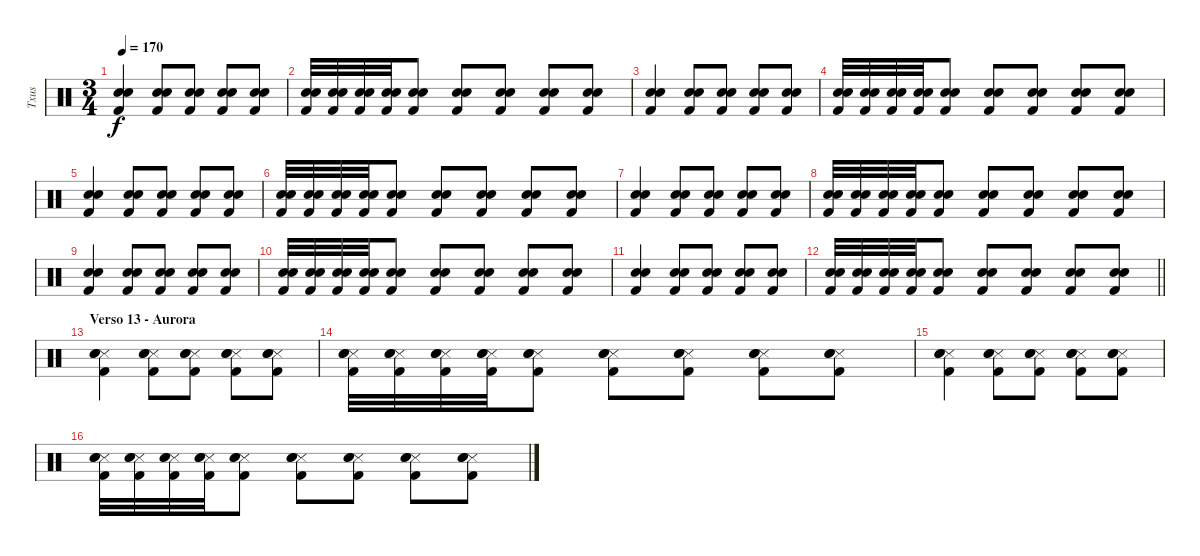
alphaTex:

\track ("Txus" "Txus") {instrument percussion}
\staff {score}
\articulation defaults
\ts (3 4)
\tempo 170
\clef neutral
\ks c
("Snare (hit) 2" "Hand Clap (hit)" "Kick (hit) 2").4{dy f} ("Snare (hit) 2" "Hand Clap (hit)" "Kick (hit) 2").8 ("Snare (hit) 2" "Hand Clap (hit)" "Kick (hit) 2").8 ("Snare (hit) 2" "Hand Clap (hit)" "Kick (hit) 2").8 ("Snare (hit) 2" "Hand Clap (hit)" "Kick (hit) 2").8 |
("Snare (hit) 2" "Hand Clap (hit)" "Kick (hit) 2").32 ("Snare (hit) 2" "Hand Clap (hit)" "Kick (hit) 2").32 ("Snare (hit) 2" "Hand Clap (hit)" "Kick (hit) 2").32 ("Snare (hit) 2" "Hand Clap (hit)" "Kick (hit) 2").32 ("Snare (hit) 2" "Hand Clap (hit)" "Kick (hit) 2").8 ("Snare (hit) 2" "Hand Clap (hit)" "Kick (hit) 2").8 ("Snare (hit) 2" "Hand Clap (hit)" "Kick (hit) 2").8 ("Snare (hit) 2" "Hand Clap (hit)" "Kick (hit) 2").8 ("Snare (hit) 2" "Hand Clap (hit)" "Kick (hit) 2").8 |
("Snare (hit) 2" "Hand Clap (hit)" "Kick (hit) 2").4 ("Snare (hit) 2" "Hand Clap (hit)" "Kick (hit) 2").8 ("Snare (hit) 2" "Hand Clap (hit)" "Kick (hit) 2").8 ("Snare (hit) 2" "Hand Clap (hit)" "Kick (hit) 2").8 ("Snare (hit) 2" "Hand Clap (hit)" "Kick (hit) 2").8 |
("Snare (hit) 2" "Hand Clap (hit)" "Kick (hit) 2").32 ("Snare (hit) 2" "Hand Clap (hit)" "Kick (hit) 2").32 ("Snare (hit) 2" "Hand Clap (hit)" "Kick (hit) 2").32 ("Snare (hit) 2" "Hand Clap (hit)" "Kick (hit) 2").32 ("Snare (hit) 2" "Hand Clap (hit)" "Kick (hit) 2").8 ("Snare (hit) 2" "Hand Clap (hit)" "Kick (hit) 2").8 ("Snare (hit) 2" "Hand Clap (hit)" "Kick (hit) 2").8 ("Snare (hit) 2" "Hand Clap (hit)" "Kick (hit) 2").8 ("Snare (hit) 2" "Hand Clap (hit)" "Kick (hit) 2").8 |
("Snare (hit) 2" "Hand Clap (hit)" "Kick (hit) 2").4 ("Snare (hit) 2" "Hand Clap (hit)" "Kick (hit) 2").8 ("Snare (hit) 2" "Hand Clap (hit)" "Kick (hit) 2").8 ("Snare (hit) 2" "Hand Clap (hit)" "Kick (hit) 2").8 ("Snare (hit) 2" "Hand Clap (hit)" "Kick (hit) 2").8 |
("Snare (hit) 2" "Hand Clap (hit)" "Kick (hit) 2").32 ("Snare (hit) 2" "Hand Clap (hit)" "Kick (hit) 2").32 ("Snare (hit) 2" "Hand Clap (hit)" "Kick (hit) 2").32 ("Snare (hit) 2" "Hand Clap (hit)" "Kick (hit) 2").32 ("Snare (hit) 2" "Hand Clap (hit)" "Kick (hit) 2").8 ("Snare (hit) 2" "Hand Clap (hit)" "Kick (hit) 2").8 ("Snare (hit) 2" "Hand Clap (hit)" "Kick (hit) 2").8 ("Snare (hit) 2" "Hand Clap (hit)" "Kick (hit) 2").8 ("Snare (hit) 2" "Hand Clap (hit)" "Kick (hit) 2").8 |
("Snare (hit) 2" "Hand Clap (hit)" "Kick (hit) 2").4 ("Snare (hit) 2" "Hand Clap (hit)" "Kick (hit) 2").8 ("Snare (hit) 2" "Hand Clap (hit)" "Kick (hit) 2").8 ("Snare (hit) 2" "Hand Clap (hit)" "Kick (hit) 2").8 ("Snare (hit) 2" "Hand Clap (hit)" "Kick (hit) 2").8 |
("Snare (hit) 2" "Hand Clap (hit)" "Kick (hit) 2").32 ("Snare (hit) 2" "Hand Clap (hit)" "Kick (hit) 2").32 ("Snare (hit) 2" "Hand Clap (hit)" "Kick (hit) 2").32 ("Snare (hit) 2" "Hand Clap (hit)" "Kick (hit) 2").32 ("Snare (hit) 2" "Hand Clap (hit)" "Kick (hit) 2").8 ("Snare (hit) 2" "Hand Clap (hit)" "Kick (hit) 2").8 ("Snare (hit) 2" "Hand Clap (hit)" "Kick (hit) 2").8 ("Snare (hit) 2" "Hand Clap (hit)" "Kick (hit) 2").8 ("Snare (hit) 2" "Hand Clap (hit)" "Kick (hit) 2").8 |
("Snare (hit) 2" "Hand Clap (hit)" "Kick (hit) 2").4 ("Snare (hit) 2" "Hand Clap (hit)" "Kick (hit) 2").8 ("Snare (hit) 2" "Hand Clap (hit)" "Kick (hit) 2").8 ("Snare (hit) 2" "Hand Clap (hit)" "Kick (hit) 2").8 ("Snare (hit) 2" "Hand Clap (hit)" "Kick (hit) 2").8 |
("Snare (hit) 2" "Hand Clap (hit)" "Kick (hit) 2").32 ("Snare (hit) 2" "Hand Clap (hit)" "Kick (hit) 2").32 ("Snare (hit) 2" "Hand Clap (hit)" "Kick (hit) 2").32 ("Snare (hit) 2" "Hand Clap (hit)" "Kick (hit) 2").32 ("Snare (hit) 2" "Hand Clap (hit)" "Kick (hit) 2").8 ("Snare (hit) 2" "Hand Clap (hit)" "Kick (hit) 2").8 ("Snare (hit) 2" "Hand Clap (hit)" "Kick (hit) 2").8 ("Snare (hit) 2" "Hand Clap (hit)" "Kick (hit) 2").8 ("Snare (hit) 2" "Hand Clap (hit)" "Kick (hit) 2").8 |
("Snare (hit) 2" "Hand Clap (hit)" "Kick (hit) 2").4 ("Snare (hit) 2" "Hand Clap (hit)" "Kick (hit) 2").8 ("Snare (hit) 2" "Hand Clap (hit)" "Kick (hit) 2").8 ("Snare (hit) 2" "Hand Clap (hit)" "Kick (hit) 2").8 ("Snare (hit) 2" "Hand Clap (hit)" "Kick (hit) 2").8 |
\barLineRight lightlight
("Snare (hit) 2" "Hand Clap (hit)" "Kick (hit) 2").32 ("Snare (hit) 2" "Hand Clap (hit)" "Kick (hit) 2").32 ("Snare (hit) 2" "Hand Clap (hit)" "Kick (hit) 2").32 ("Snare (hit) 2" "Hand Clap (hit)" "Kick (hit) 2").32 ("Snare (hit) 2" "Hand Clap (hit)" "Kick (hit) 2").8 ("Snare (hit) 2" "Hand Clap (hit)" "Kick (hit) 2").8 ("Snare (hit) 2" "Hand Clap (hit)" "Kick (hit) 2").8 ("Snare (hit) 2" "Hand Clap (hit)" "Kick (hit) 2").8 ("Snare (hit) 2" "Hand Clap (hit)" "Kick (hit) 2").8 |
\section ("" "Verso 13 - Aurora")
("Metronome (hit)" "Snare (hit) 2" "Hand Clap (hit)" "Kick (hit) 2").4 ("Metronome (hit)" "Snare (hit) 2" "Hand Clap (hit)" "Kick (hit) 2").8 ("Metronome (hit)" "Snare (hit) 2" "Hand Clap (hit)" "Kick (hit) 2").8 ("Metronome (hit)" "Snare (hit) 2" "Hand Clap (hit)" "Kick (hit) 2").8 ("Metronome (hit)" "Snare (hit) 2" "Hand Clap (hit)" "Kick (hit) 2").8 |
("Metronome (hit)" "Snare (hit) 2" "Hand Clap (hit)" "Kick (hit) 2").32 ("Metronome (hit)" "Snare (hit) 2" "Hand Clap (hit)" "Kick (hit) 2").32 ("Metronome (hit)" "Snare (hit) 2" "Hand Clap (hit)" "Kick (hit) 2").32 ("Metronome (hit)" "Snare (hit) 2" "Hand Clap (hit)" "Kick (hit) 2").32 ("Metronome (hit)" "Snare (hit) 2" "Hand Clap (hit)" "Kick (hit) 2").8 ("Metronome (hit)" "Snare (hit) 2" "Hand Clap (hit)" "Kick (hit) 2").8 ("Metronome (hit)" "Snare (hit) 2" "Hand Clap (hit)" "Kick (hit) 2").8 ("Metronome (hit)" "Snare (hit) 2" "Hand Clap (hit)" "Kick (hit) 2").8 ("Metronome (hit)" "Snare (hit) 2" "Hand Clap (hit)" "Kick (hit) 2").8 |
("Metronome (hit)" "Snare (hit) 2" "Hand Clap (hit)" "Kick (hit) 2").4 ("Metronome (hit)" "Snare (hit) 2" "Hand Clap (hit)" "Kick (hit) 2").8 ("Metronome (hit)" "Snare (hit) 2" "Hand Clap (hit)" "Kick (hit) 2").8 ("Metronome (hit)" "Snare (hit) 2" "Hand Clap (hit)" "Kick (hit) 2").8 ("Metronome (hit)" "Snare (hit) 2" "Hand Clap (hit)" "Kick (hit) 2").8 |
("Metronome (hit)" "Snare (hit) 2" "Hand Clap (hit)" "Kick (hit) 2").32 ("Metronome (hit)" "Snare (hit) 2" "Hand Clap (hit)" "Kick (hit) 2").32 ("Metronome (hit)" "Snare (hit) 2" "Hand Clap (hit)" "Kick (hit) 2").32 ("Metronome (hit)" "Snare (hit) 2" "Hand Clap (hit)" "Kick (hit) 2").32 ("Metronome (hit)" "Snare (hit) 2" "Hand Clap (hit)" "Kick (hit) 2").8 ("Metronome (hit)" "Snare (hit) 2" "Hand Clap (hit)" "Kick (hit) 2").8 ("Metronome (hit)" "Snare (hit) 2" "Hand Clap (hit)" "Kick (hit) 2").8 ("Metronome (hit)" "Snare (hit) 2" "Hand Clap (hit)" "Kick (hit) 2").8 ("Metronome (hit)" "Snare (hit) 2" "Hand Clap (hit)" "Kick (hit) 2").8
